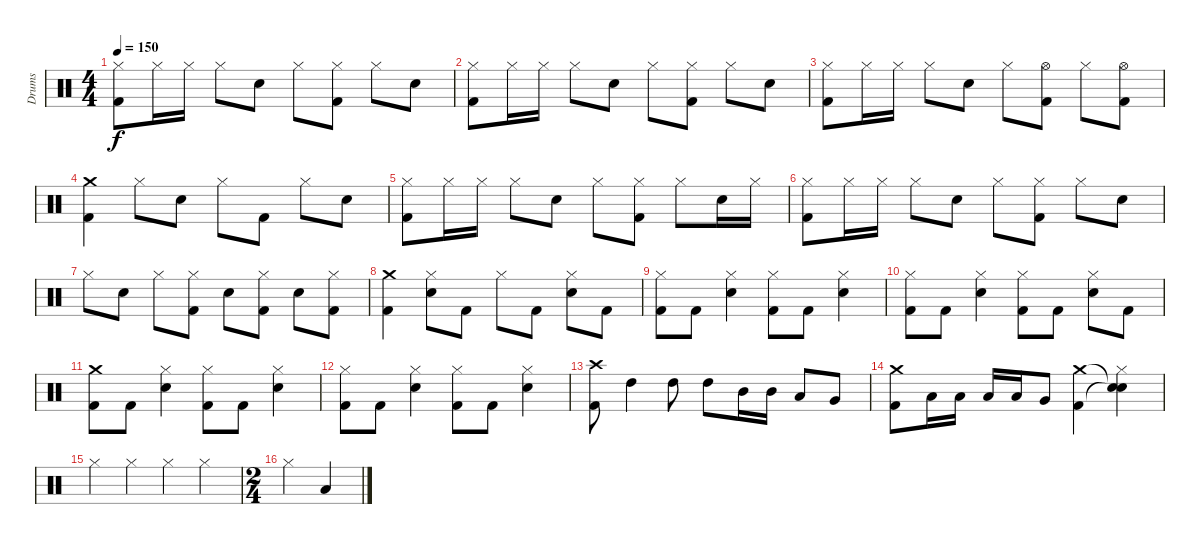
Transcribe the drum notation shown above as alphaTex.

\track ("Drums" "Drums") {instrument percussion}
\staff {score}
\articulation defaults
\ts (4 4)
\tempo 150
\clef neutral
\ks c
("Hi-Hat (closed)" "Kick (hit) 2").8{dy f} "Hi-Hat (closed)".16 "Hi-Hat (closed)".16 "Hi-Hat (closed)".8 "Electric Snare (hit)".8 "Hi-Hat (closed)".8 ("Hi-Hat (closed)" "Kick (hit) 2").8 "Hi-Hat (closed)".8 "Electric Snare (hit)".8 |
("Hi-Hat (closed)" "Kick (hit) 2").8 "Hi-Hat (closed)".16 "Hi-Hat (closed)".16 "Hi-Hat (closed)".8 "Electric Snare (hit)".8 "Hi-Hat (closed)".8 ("Hi-Hat (closed)" "Kick (hit) 2").8 "Hi-Hat (closed)".8 "Electric Snare (hit)".8 |
("Hi-Hat (closed)" "Kick (hit) 2").8 "Hi-Hat (closed)".16 "Hi-Hat (closed)".16 "Hi-Hat (closed)".8 "Electric Snare (hit)".8 "Hi-Hat (closed)".8 ("Hi-Hat (open)" "Kick (hit) 2").8 "Hi-Hat (closed)".8 ("Hi-Hat (open)" "Kick (hit) 2").8 |
("Crash medium (hit)" "Kick (hit) 2").4 "Hi-Hat (closed)".8 "Electric Snare (hit)".8 "Hi-Hat (closed)".8 "Kick (hit) 2".8 "Hi-Hat (closed)".8 "Electric Snare (hit)".8 |
("Hi-Hat (closed)" "Kick (hit) 2").8 "Hi-Hat (closed)".16 "Hi-Hat (closed)".16 "Hi-Hat (closed)".8 "Electric Snare (hit)".8 "Hi-Hat (closed)".8 ("Hi-Hat (closed)" "Kick (hit) 2").8 "Hi-Hat (closed)".8 "Electric Snare (hit)".16 "Hi-Hat (closed)".16 |
("Hi-Hat (closed)" "Kick (hit) 2").8 "Hi-Hat (closed)".16 "Hi-Hat (closed)".16 "Hi-Hat (closed)".8 "Electric Snare (hit)".8 "Hi-Hat (closed)".8 ("Hi-Hat (closed)" "Kick (hit) 2").8 "Hi-Hat (closed)".8 "Electric Snare (hit)".8 |
"Hi-Hat (closed)".8 "Electric Snare (hit)".8 "Hi-Hat (closed)".8 ("Hi-Hat (closed)" "Kick (hit) 2").8 "Electric Snare (hit)".8 ("Hi-Hat (closed)" "Kick (hit) 2").8 "Electric Snare (hit)".8 ("Hi-Hat (closed)" "Kick (hit) 2").8 |
("Crash medium (hit)" "Kick (hit) 2").4 ("Hi-Hat (closed)" "Electric Snare (hit)").8 "Kick (hit) 2".8 "Hi-Hat (closed)".8 "Kick (hit) 2".8 ("Hi-Hat (closed)" "Electric Snare (hit)").8 "Kick (hit) 2".8 |
("Hi-Hat (closed)" "Kick (hit) 2").8 "Kick (hit) 2".8 ("Hi-Hat (closed)" "Electric Snare (hit)").4 ("Hi-Hat (closed)" "Kick (hit) 2").8 "Kick (hit) 2".8 ("Hi-Hat (closed)" "Electric Snare (hit)").4 |
("Hi-Hat (closed)" "Kick (hit) 2").8 "Kick (hit) 2".8 ("Hi-Hat (closed)" "Electric Snare (hit)").4 ("Hi-Hat (closed)" "Kick (hit) 2").8 "Kick (hit) 2".8 ("Hi-Hat (closed)" "Electric Snare (hit)").8 "Kick (hit) 2".8 |
("Crash medium (hit)" "Kick (hit) 2").8 "Kick (hit) 2".8 ("Hi-Hat (closed)" "Electric Snare (hit)").4 ("Hi-Hat (closed)" "Kick (hit) 2").8 "Kick (hit) 2".8 ("Hi-Hat (closed)" "Electric Snare (hit)").4 |
("Hi-Hat (closed)" "Kick (hit) 2").8 "Kick (hit) 2".8 ("Hi-Hat (closed)" "Electric Snare (hit)").4 ("Hi-Hat (closed)" "Kick (hit) 2").8 "Kick (hit) 2".8 ("Hi-Hat (closed)" "Electric Snare (hit)").4 |
("Crash high (hit)" "Kick (hit) 2").8 "High Tom (hit)".4 "High Tom (hit)".8 "High Tom (hit)".8 "Mid Tom (hit)".16 "Mid Tom (hit)".16 "Low Tom (hit)".8 "Very Low Tom (hit)".8 |
("Crash medium (hit)" "Kick (hit) 2").8 "Low Tom (hit)".16 "Low Tom (hit)".16 "Low Tom (hit)".16 "Low Tom (hit)".16 "Very Low Tom (hit)".8 ("Crash medium (hit)" "Kick (hit) 2").4 ("Snare (hit)"{t} "Snare (hit)"{t} "Hi-Hat (closed)").4 |
"Hi-Hat (closed)".4 "Hi-Hat (closed)".4 "Hi-Hat (closed)".4 "Hi-Hat (closed)".4 |
\ts (2 4)
"Hi-Hat (closed)".4 "Low Tom (hit)".4
